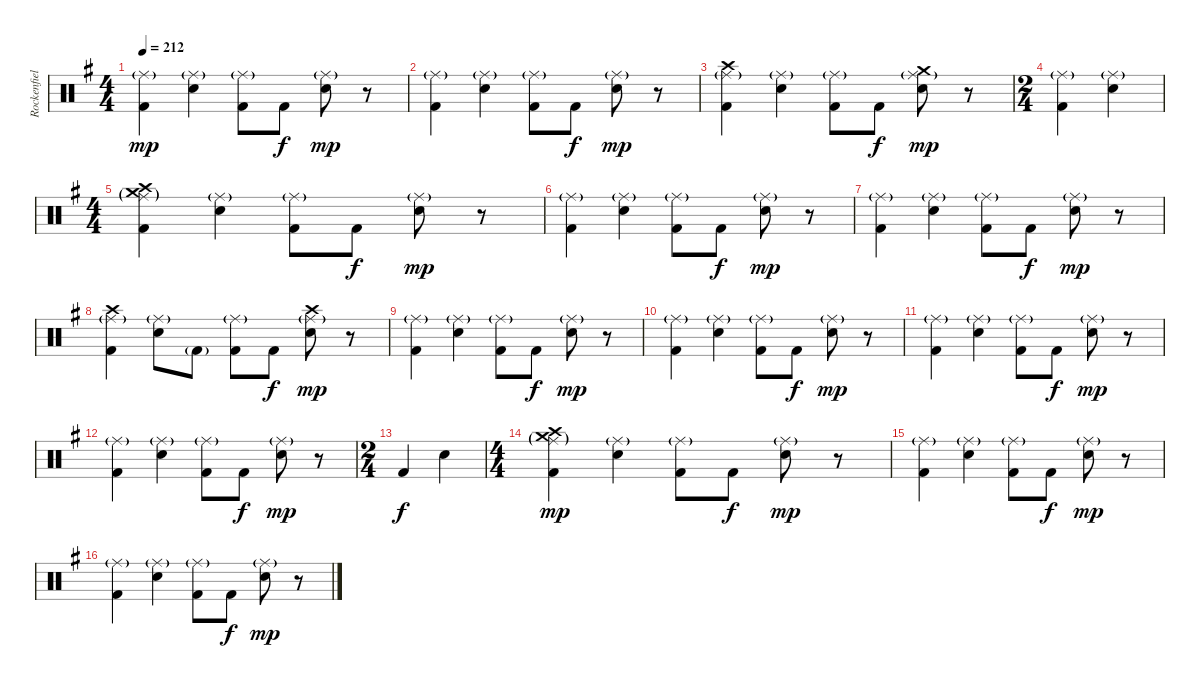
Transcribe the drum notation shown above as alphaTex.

\track ("Rockenfield" "Rockenfiel") {instrument percussion}
\staff {score}
\articulation defaults
\ts (4 4)
\tempo 212
\clef neutral
\ks g
("Ride (middle)"{g} "Kick (hit) 2").4{dy mp} ("Ride (middle)"{g} "Electric Snare (hit)").4 ("Ride (middle)"{g} "Kick (hit) 2").8 "Kick (hit) 2".8{dy f} ("Ride (middle)"{g} "Electric Snare (hit)").8{dy mp} r.8 |
("Ride (middle)"{g} "Kick (hit) 2").4 ("Ride (middle)"{g} "Electric Snare (hit)").4 ("Ride (middle)"{g} "Kick (hit) 2").8 "Kick (hit) 2".8{dy f} ("Ride (middle)"{g} "Electric Snare (hit)").8{dy mp} r.8 |
("Ride (middle)"{g} "Crash high (hit)" "Kick (hit) 2").4 ("Ride (middle)"{g} "Electric Snare (hit)").4 ("Ride (middle)"{g} "Kick (hit) 2").8 "Kick (hit) 2".8{dy f} ("Ride (middle)"{g} "Crash medium (hit)" "Electric Snare (hit)").8{dy mp} r.8 |
\ts (2 4)
("Ride (middle)"{g} "Kick (hit) 2").4 ("Ride (middle)"{g} "Electric Snare (hit)").4 |
\ts (4 4)
("Ride (middle)"{g} "Crash high (hit)" "Crash medium (hit)"{g} "Kick (hit) 2").4 ("Ride (middle)"{g} "Electric Snare (hit)").4 ("Ride (middle)"{g} "Kick (hit) 2").8 "Kick (hit) 2".8{dy f} ("Ride (middle)"{g} "Electric Snare (hit)").8{dy mp} r.8 |
("Ride (middle)"{g} "Kick (hit) 2").4 ("Ride (middle)"{g} "Electric Snare (hit)").4 ("Ride (middle)"{g} "Kick (hit) 2").8 "Kick (hit) 2".8{dy f} ("Ride (middle)"{g} "Electric Snare (hit)").8{dy mp} r.8 |
("Ride (middle)"{g} "Kick (hit) 2").4 ("Ride (middle)"{g} "Electric Snare (hit)").4 ("Ride (middle)"{g} "Kick (hit) 2").8 "Kick (hit) 2".8{dy f} ("Ride (middle)"{g} "Electric Snare (hit)").8{dy mp} r.8 |
("Ride (middle)"{g} "Crash high (hit)" "Kick (hit) 2").4 ("Ride (middle)"{g} "Electric Snare (hit)").8 "Kick (hit) 2"{g}.8 ("Ride (middle)"{g} "Kick (hit) 2").8 "Kick (hit) 2".8{dy f} ("Ride (middle)"{g} "Crash high (hit)" "Electric Snare (hit)").8{dy mp} r.8 |
("Ride (middle)"{g} "Kick (hit) 2").4 ("Ride (middle)"{g} "Electric Snare (hit)").4 ("Ride (middle)"{g} "Kick (hit) 2").8 "Kick (hit) 2".8{dy f} ("Ride (middle)"{g} "Electric Snare (hit)").8{dy mp} r.8 |
("Ride (middle)"{g} "Kick (hit) 2").4 ("Ride (middle)"{g} "Electric Snare (hit)").4 ("Ride (middle)"{g} "Kick (hit) 2").8 "Kick (hit) 2".8{dy f} ("Ride (middle)"{g} "Electric Snare (hit)").8{dy mp} r.8 |
("Ride (middle)"{g} "Kick (hit) 2").4 ("Ride (middle)"{g} "Electric Snare (hit)").4 ("Ride (middle)"{g} "Kick (hit) 2").8 "Kick (hit) 2".8{dy f} ("Ride (middle)"{g} "Electric Snare (hit)").8{dy mp} r.8 |
("Ride (middle)"{g} "Kick (hit) 2").4 ("Ride (middle)"{g} "Electric Snare (hit)").4 ("Ride (middle)"{g} "Kick (hit) 2").8 "Kick (hit) 2".8{dy f} ("Ride (middle)"{g} "Electric Snare (hit)").8{dy mp} r.8 |
\ts (2 4)
"Kick (hit) 2".4{dy f} "Electric Snare (hit)".4 |
\ts (4 4)
("Ride (middle)"{g} "Crash high (hit)" "Crash medium (hit)"{g} "Kick (hit) 2").4{dy mp} ("Ride (middle)"{g} "Electric Snare (hit)").4 ("Ride (middle)"{g} "Kick (hit) 2").8 "Kick (hit) 2".8{dy f} ("Ride (middle)"{g} "Electric Snare (hit)").8{dy mp} r.8 |
("Ride (middle)"{g} "Kick (hit) 2").4 ("Ride (middle)"{g} "Electric Snare (hit)").4 ("Ride (middle)"{g} "Kick (hit) 2").8 "Kick (hit) 2".8{dy f} ("Ride (middle)"{g} "Electric Snare (hit)").8{dy mp} r.8 |
("Ride (middle)"{g} "Kick (hit) 2").4 ("Ride (middle)"{g} "Electric Snare (hit)").4 ("Ride (middle)"{g} "Kick (hit) 2").8 "Kick (hit) 2".8{dy f} ("Ride (middle)"{g} "Electric Snare (hit)").8{dy mp} r.8
